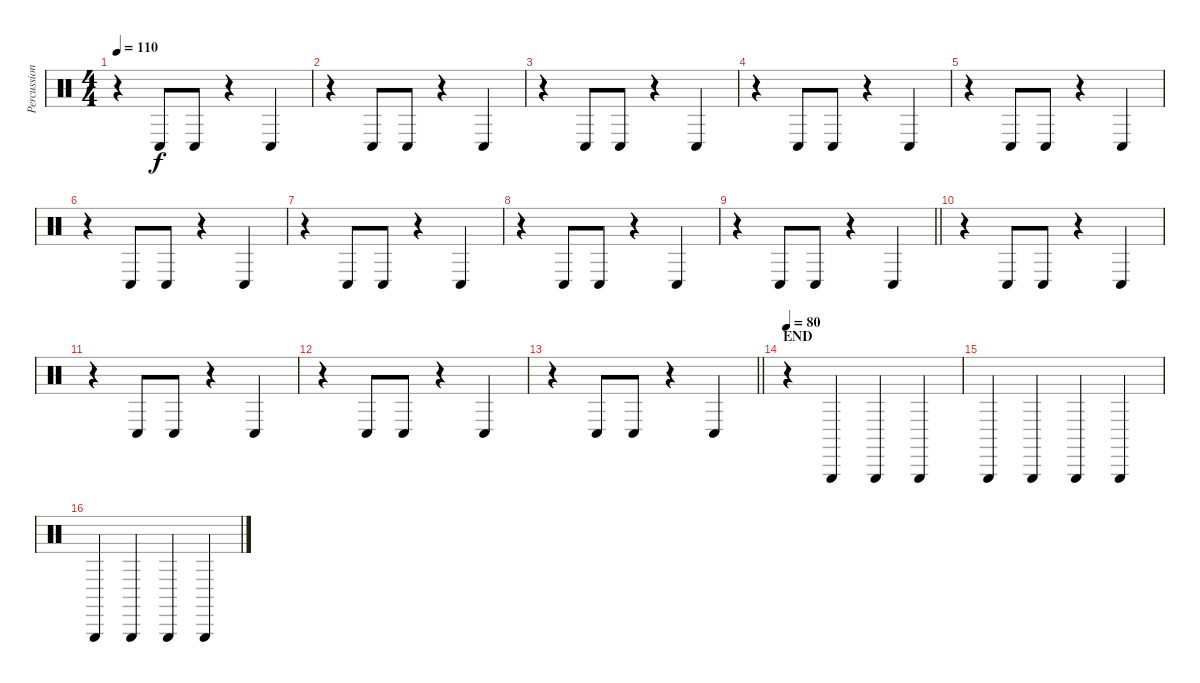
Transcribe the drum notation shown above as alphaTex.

\track ("Percussion" "Percussion") {instrument percussion}
\staff {score}
\articulation defaults
\ts (4 4)
\tempo 110
\clef neutral
\ks c
r.4{dy f} "Conga low (hit)".8 "Conga low (hit)".8 r.4 "Conga low (hit)".4 |
r.4 "Conga low (hit)".8 "Conga low (hit)".8 r.4 "Conga low (hit)".4 |
r.4 "Conga low (hit)".8 "Conga low (hit)".8 r.4 "Conga low (hit)".4 |
r.4 "Conga low (hit)".8 "Conga low (hit)".8 r.4 "Conga low (hit)".4 |
r.4 "Conga low (hit)".8 "Conga low (hit)".8 r.4 "Conga low (hit)".4 |
r.4 "Conga low (hit)".8 "Conga low (hit)".8 r.4 "Conga low (hit)".4 |
r.4 "Conga low (hit)".8 "Conga low (hit)".8 r.4 "Conga low (hit)".4 |
r.4 "Conga low (hit)".8 "Conga low (hit)".8 r.4 "Conga low (hit)".4 |
\barLineRight lightlight
r.4 "Conga low (hit)".8 "Conga low (hit)".8 r.4 "Conga low (hit)".4 |
r.4 "Conga low (hit)".8 "Conga low (hit)".8 r.4 "Conga low (hit)".4 |
r.4 "Conga low (hit)".8 "Conga low (hit)".8 r.4 "Conga low (hit)".4 |
r.4 "Conga low (hit)".8 "Conga low (hit)".8 r.4 "Conga low (hit)".4 |
\barLineRight lightlight
r.4 "Conga low (hit)".8 "Conga low (hit)".8 r.4 "Conga low (hit)".4 |
\section ("" "END")
\tempo 80
r.4{volume 5} "Triangle (hit)".4 "Triangle (hit)".4 "Triangle (hit)".4 |
"Triangle (hit)".4 "Triangle (hit)".4{beam merge} "Triangle (hit)".4{beam merge} "Triangle (hit)".4 |
"Triangle (hit)".4 "Triangle (hit)".4{beam merge} "Triangle (hit)".4{beam merge} "Triangle (hit)".4
